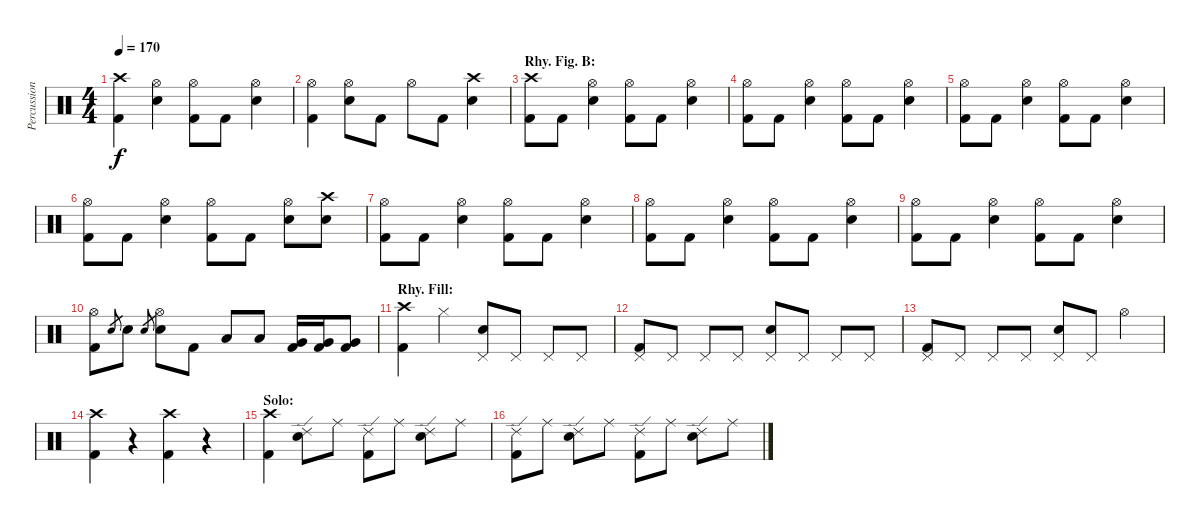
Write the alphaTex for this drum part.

\track ("Percussion" "Percussion") {instrument percussion}
\staff {score}
\articulation defaults
\ts (4 4)
\tempo 170
\clef neutral
\ks c
("Crash high (hit)" "Kick (hit) 2").4{dy f} ("Hi-Hat (open)" "Snare (hit) 2").4 ("Hi-Hat (open)" "Kick (hit) 2").8 "Kick (hit) 2".8 ("Hi-Hat (open)" "Snare (hit) 2").4 |
("Hi-Hat (open)" "Kick (hit) 2").4 ("Hi-Hat (open)" "Snare (hit) 2").8 "Kick (hit) 2".8 "Hi-Hat (open)".8 "Kick (hit) 2".8 ("Crash high (hit)" "Snare (hit) 2").4 |
\section ("" "Rhy. Fig. B:")
("Crash high (hit)" "Kick (hit) 2").8 "Kick (hit) 2".8 ("Hi-Hat (open)" "Snare (hit) 2").4 ("Hi-Hat (open)" "Kick (hit) 2").8 "Kick (hit) 2".8 ("Hi-Hat (open)" "Snare (hit) 2").4 |
("Hi-Hat (open)" "Kick (hit) 2").8 "Kick (hit) 2".8 ("Hi-Hat (open)" "Snare (hit) 2").4 ("Hi-Hat (open)" "Kick (hit) 2").8 "Kick (hit) 2".8 ("Hi-Hat (open)" "Snare (hit) 2").4 |
("Hi-Hat (open)" "Kick (hit) 2").8 "Kick (hit) 2".8 ("Hi-Hat (open)" "Snare (hit) 2").4 ("Hi-Hat (open)" "Kick (hit) 2").8 "Kick (hit) 2".8 ("Hi-Hat (open)" "Snare (hit) 2").4 |
("Hi-Hat (open)" "Kick (hit) 2").8 "Kick (hit) 2".8 ("Hi-Hat (open)" "Snare (hit) 2").4 ("Hi-Hat (open)" "Kick (hit) 2").8 "Kick (hit) 2".8 ("Hi-Hat (open)" "Snare (hit) 2").8 ("Crash high (hit)" "Snare (hit) 2").8 |
("Hi-Hat (open)" "Kick (hit) 2").8 "Kick (hit) 2".8 ("Hi-Hat (open)" "Snare (hit) 2").4 ("Hi-Hat (open)" "Kick (hit) 2").8 "Kick (hit) 2".8 ("Hi-Hat (open)" "Snare (hit) 2").4 |
("Hi-Hat (open)" "Kick (hit) 2").8 "Kick (hit) 2".8 ("Hi-Hat (open)" "Snare (hit) 2").4 ("Hi-Hat (open)" "Kick (hit) 2").8 "Kick (hit) 2".8 ("Hi-Hat (open)" "Snare (hit) 2").4 |
("Hi-Hat (open)" "Kick (hit) 2").8 "Kick (hit) 2".8 ("Hi-Hat (open)" "Snare (hit) 2").4 ("Hi-Hat (open)" "Kick (hit) 2").8 "Kick (hit) 2".8 ("Hi-Hat (open)" "Snare (hit) 2").4 |
("Hi-Hat (open)" "Kick (hit) 2").8 "Snare (hit) 2".8{gr} "Snare (hit) 2".8 "Snare (hit) 2".8{gr} ("Hi-Hat (open)" "Snare (hit) 2").8 "Kick (hit) 2".8 "Low Tom (hit)".8 "Low Tom (hit)".8 ("Very Low Tom (hit)" "Kick (hit) 2").16 ("Very Low Tom (hit)" "Kick (hit) 2").16 ("Very Low Tom (hit)" "Kick (hit) 2").8 |
\section ("" "Rhy. Fill:")
("Crash high (hit)" "Kick (hit) 2").4 "Hi-Hat (closed)".4 ("Pedal Hi-Hat (hit)" "Snare (hit) 2").8 "Pedal Hi-Hat (hit)".8 "Pedal Hi-Hat (hit)".8 "Pedal Hi-Hat (hit)".8 |
("Pedal Hi-Hat (hit)" "Kick (hit) 2").8 "Pedal Hi-Hat (hit)".8 "Pedal Hi-Hat (hit)".8 "Pedal Hi-Hat (hit)".8 ("Pedal Hi-Hat (hit)" "Snare (hit) 2").8 "Pedal Hi-Hat (hit)".8 "Pedal Hi-Hat (hit)".8 "Pedal Hi-Hat (hit)".8 |
("Pedal Hi-Hat (hit)" "Kick (hit) 2").8 "Pedal Hi-Hat (hit)".8 "Pedal Hi-Hat (hit)".8 "Pedal Hi-Hat (hit)".8 ("Pedal Hi-Hat (hit)" "Snare (hit) 2").8 "Pedal Hi-Hat (hit)".8 "Hi-Hat (open)".4 |
("Crash high (hit)" "Kick (hit) 2").4 r.4 ("Crash high (hit)" "Kick (hit) 2").4 r.4 |
\section ("" "Solo:")
("Crash high (hit)" "Kick (hit) 2").4 ("Ride (edge) 2" "Snare (hit) 2").8 "Ride (middle)".8 ("Ride (edge) 2" "Kick (hit) 2").8 "Ride (middle)".8 ("Ride (edge) 2" "Snare (hit) 2").8 "Ride (middle)".8 |
("Ride (edge) 2" "Kick (hit) 2").8 "Ride (middle)".8 ("Ride (edge) 2" "Snare (hit) 2").8 "Ride (middle)".8 ("Ride (edge) 2" "Kick (hit) 2").8 "Ride (middle)".8 ("Ride (edge) 2" "Snare (hit) 2").8 "Ride (middle)".8
